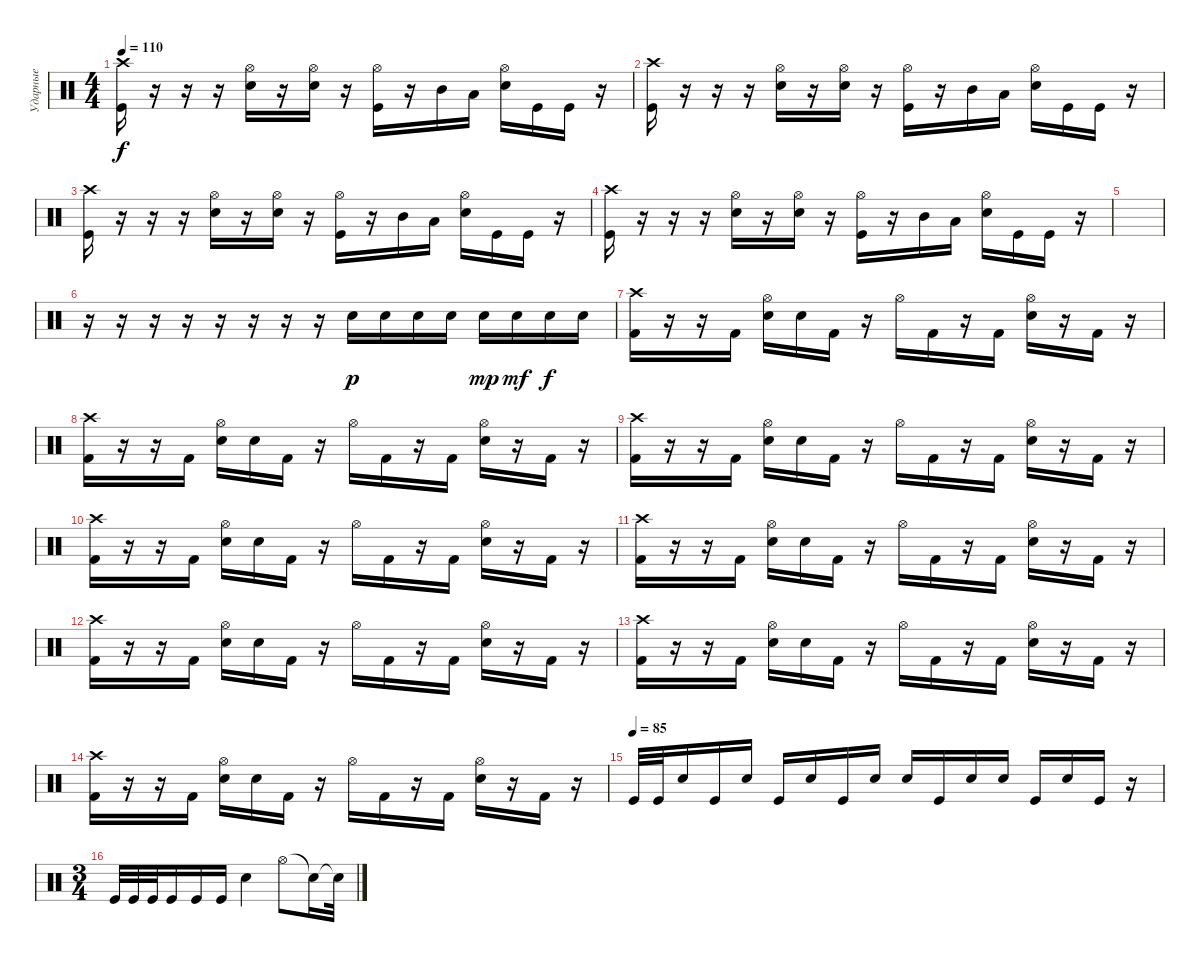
\track ("Ударные" "Ударные") {instrument percussion}
\staff {score}
\articulation defaults
\ts (4 4)
\tempo 110
\clef neutral
\ks c
("Crash high (hit)" "Kick (hit)").16{dy f} r.16 r.16 r.16 ("Hi-Hat (open)" "Electric Snare (hit)").16 r.16 ("Hi-Hat (open)" "Electric Snare (hit)").16 r.16 ("Hi-Hat (open)" "Kick (hit)").16 r.16 "Mid Tom (hit)".16 "Low Tom (hit)".16 ("Hi-Hat (open)" "Electric Snare (hit)").16 "Kick (hit)".16 "Kick (hit)".16 r.16 |
("Crash high (hit)" "Kick (hit)").16 r.16 r.16 r.16 ("Hi-Hat (open)" "Electric Snare (hit)").16 r.16 ("Hi-Hat (open)" "Electric Snare (hit)").16 r.16 ("Hi-Hat (open)" "Kick (hit)").16 r.16 "Mid Tom (hit)".16 "Low Tom (hit)".16 ("Hi-Hat (open)" "Electric Snare (hit)").16 "Kick (hit)".16 "Kick (hit)".16 r.16 |
("Crash high (hit)" "Kick (hit)").16 r.16 r.16 r.16 ("Hi-Hat (open)" "Electric Snare (hit)").16 r.16 ("Hi-Hat (open)" "Electric Snare (hit)").16 r.16 ("Hi-Hat (open)" "Kick (hit)").16 r.16 "Mid Tom (hit)".16 "Low Tom (hit)".16 ("Hi-Hat (open)" "Electric Snare (hit)").16 "Kick (hit)".16 "Kick (hit)".16 r.16 |
("Crash high (hit)" "Kick (hit)").16 r.16 r.16 r.16 ("Hi-Hat (open)" "Electric Snare (hit)").16 r.16 ("Hi-Hat (open)" "Electric Snare (hit)").16 r.16 ("Hi-Hat (open)" "Kick (hit)").16 r.16 "Mid Tom (hit)".16 "Low Tom (hit)".16 ("Hi-Hat (open)" "Electric Snare (hit)").16 "Kick (hit)".16 "Kick (hit)".16 r.16 |
|
r.16 r.16 r.16 r.16 r.16 r.16 r.16 r.16 "Electric Snare (hit)".16{dy p} "Electric Snare (hit)".16 "Electric Snare (hit)".16 "Electric Snare (hit)".16 "Electric Snare (hit)".16{dy mp} "Electric Snare (hit)".16{dy mf} "Electric Snare (hit)".16{dy f} "Electric Snare (hit)".16 |
("Crash high (hit)" "Kick (hit) 2").16 r.16 r.16 "Kick (hit) 2".16 ("Hi-Hat (open)" "Electric Snare (hit)").16 "Electric Snare (hit)".16 "Kick (hit) 2".16 r.16 "Hi-Hat (open)".16 "Kick (hit) 2".16 r.16 "Kick (hit) 2".16 ("Hi-Hat (open)" "Electric Snare (hit)").16 r.16 "Kick (hit) 2".16 r.16 |
("Crash high (hit)" "Kick (hit) 2").16 r.16 r.16 "Kick (hit) 2".16 ("Hi-Hat (open)" "Electric Snare (hit)").16 "Electric Snare (hit)".16 "Kick (hit) 2".16 r.16 "Hi-Hat (open)".16 "Kick (hit) 2".16 r.16 "Kick (hit) 2".16 ("Hi-Hat (open)" "Electric Snare (hit)").16 r.16 "Kick (hit) 2".16 r.16 |
("Crash high (hit)" "Kick (hit) 2").16 r.16 r.16 "Kick (hit) 2".16 ("Hi-Hat (open)" "Electric Snare (hit)").16 "Electric Snare (hit)".16 "Kick (hit) 2".16 r.16 "Hi-Hat (open)".16 "Kick (hit) 2".16 r.16 "Kick (hit) 2".16 ("Hi-Hat (open)" "Electric Snare (hit)").16 r.16 "Kick (hit) 2".16 r.16 |
("Crash high (hit)" "Kick (hit) 2").16 r.16 r.16 "Kick (hit) 2".16 ("Hi-Hat (open)" "Electric Snare (hit)").16 "Electric Snare (hit)".16 "Kick (hit) 2".16 r.16 "Hi-Hat (open)".16 "Kick (hit) 2".16 r.16 "Kick (hit) 2".16 ("Hi-Hat (open)" "Electric Snare (hit)").16 r.16 "Kick (hit) 2".16 r.16 |
("Crash high (hit)" "Kick (hit) 2").16 r.16 r.16 "Kick (hit) 2".16 ("Hi-Hat (open)" "Electric Snare (hit)").16 "Electric Snare (hit)".16 "Kick (hit) 2".16 r.16 "Hi-Hat (open)".16 "Kick (hit) 2".16 r.16 "Kick (hit) 2".16 ("Hi-Hat (open)" "Electric Snare (hit)").16 r.16 "Kick (hit) 2".16 r.16 |
("Crash high (hit)" "Kick (hit) 2").16 r.16 r.16 "Kick (hit) 2".16 ("Hi-Hat (open)" "Electric Snare (hit)").16 "Electric Snare (hit)".16 "Kick (hit) 2".16 r.16 "Hi-Hat (open)".16 "Kick (hit) 2".16 r.16 "Kick (hit) 2".16 ("Hi-Hat (open)" "Electric Snare (hit)").16 r.16 "Kick (hit) 2".16 r.16 |
("Crash high (hit)" "Kick (hit) 2").16 r.16 r.16 "Kick (hit) 2".16 ("Hi-Hat (open)" "Electric Snare (hit)").16 "Electric Snare (hit)".16 "Kick (hit) 2".16 r.16 "Hi-Hat (open)".16 "Kick (hit) 2".16 r.16 "Kick (hit) 2".16 ("Hi-Hat (open)" "Electric Snare (hit)").16 r.16 "Kick (hit) 2".16 r.16 |
("Crash high (hit)" "Kick (hit) 2").16 r.16 r.16 "Kick (hit) 2".16 ("Hi-Hat (open)" "Electric Snare (hit)").16 "Electric Snare (hit)".16 "Kick (hit) 2".16 r.16 "Hi-Hat (open)".16 "Kick (hit) 2".16 r.16 "Kick (hit) 2".16 ("Hi-Hat (open)" "Electric Snare (hit)").16 r.16 "Kick (hit) 2".16 r.16 |
\tempo (85)
"Kick (hit)".32 "Kick (hit)".32 "Electric Snare (hit)".16 "Kick (hit)".16 "Electric Snare (hit)".16 "Kick (hit)".16 "Electric Snare (hit)".16 "Kick (hit)".16 "Electric Snare (hit)".16 "Electric Snare (hit)".16 "Kick (hit)".16 "Electric Snare (hit)".16 "Electric Snare (hit)".16 "Kick (hit)".16 "Electric Snare (hit)".16 "Kick (hit)".16 r.16 |
\ts (3 4)
"Kick (hit)".32 "Kick (hit)".32 "Kick (hit)".32 "Kick (hit)".16 "Kick (hit)".16 "Kick (hit)".16 "Electric Snare (hit)".4 "Hi-Hat (open)".8 "Snare (hit)"{t}.16 "Snare (hit)"{t}.32
